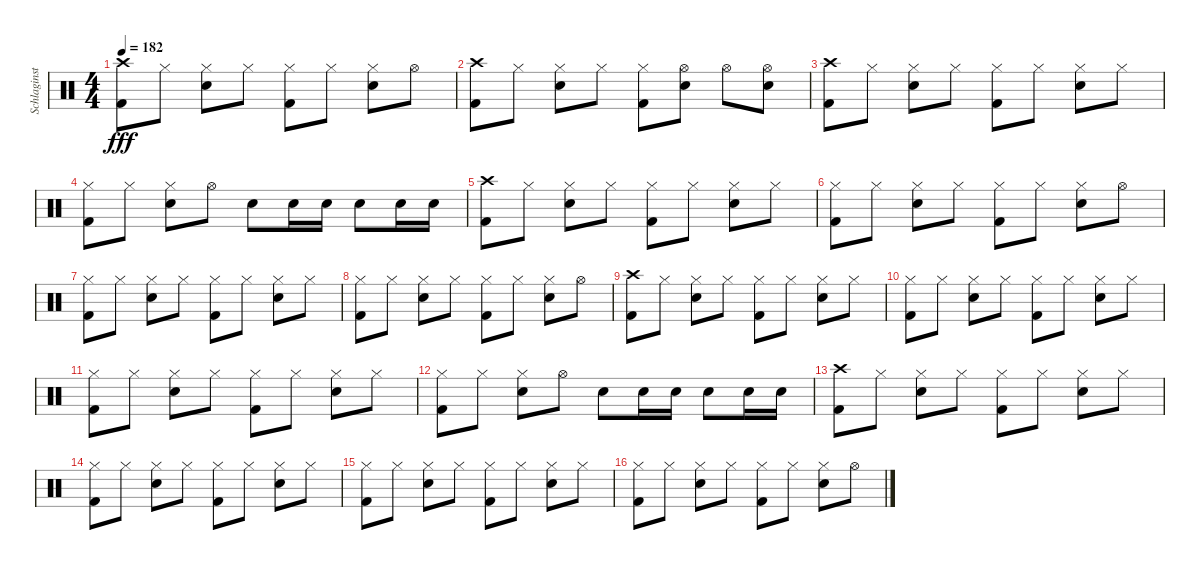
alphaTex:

\track ("Schlaginstrumente - Auswahl" "Schlaginst") {instrument percussion}
\staff {score}
\articulation defaults
\ts (4 4)
\tempo 182
\clef neutral
\ks c
("Kick (hit) 2" "Crash high (hit)").8{dy fff} "Hi-Hat (closed)".8 ("Snare (hit) 2" "Hi-Hat (closed)").8 "Hi-Hat (closed)".8 ("Kick (hit) 2" "Hi-Hat (closed)").8 "Hi-Hat (closed)".8 ("Snare (hit) 2" "Hi-Hat (closed)").8 "Hi-Hat (open)".8 |
("Kick (hit) 2" "Crash high (hit)").8 "Hi-Hat (closed)".8 ("Snare (hit) 2" "Hi-Hat (closed)").8 "Hi-Hat (closed)".8 ("Kick (hit) 2" "Hi-Hat (closed)").8 ("Snare (hit) 2" "Hi-Hat (open)").8 "Hi-Hat (open)".8 ("Snare (hit) 2" "Hi-Hat (open)").8 |
("Kick (hit) 2" "Crash high (hit)").8 "Hi-Hat (closed)".8 ("Snare (hit) 2" "Hi-Hat (closed)").8 "Hi-Hat (closed)".8 ("Kick (hit) 2" "Hi-Hat (closed)").8 "Hi-Hat (closed)".8 ("Snare (hit) 2" "Hi-Hat (closed)").8 "Hi-Hat (closed)".8 |
("Kick (hit) 2" "Hi-Hat (closed)").8 "Hi-Hat (closed)".8 ("Snare (hit) 2" "Hi-Hat (closed)").8 "Hi-Hat (open)".8 "Snare (hit) 2".8 "Snare (hit) 2".16 "Snare (hit) 2".16 "Snare (hit) 2".8 "Snare (hit) 2".16 "Snare (hit) 2".16 |
("Kick (hit) 2" "Crash high (hit)").8 "Hi-Hat (closed)".8 ("Snare (hit) 2" "Hi-Hat (closed)").8 "Hi-Hat (closed)".8 ("Kick (hit) 2" "Hi-Hat (closed)").8 "Hi-Hat (closed)".8 ("Snare (hit) 2" "Hi-Hat (closed)").8 "Hi-Hat (closed)".8 |
("Kick (hit) 2" "Hi-Hat (closed)").8 "Hi-Hat (closed)".8 ("Snare (hit) 2" "Hi-Hat (closed)").8 "Hi-Hat (closed)".8 ("Kick (hit) 2" "Hi-Hat (closed)").8 "Hi-Hat (closed)".8 ("Snare (hit) 2" "Hi-Hat (closed)").8 "Hi-Hat (open)".8 |
("Kick (hit) 2" "Hi-Hat (closed)").8 "Hi-Hat (closed)".8 ("Snare (hit) 2" "Hi-Hat (closed)").8 "Hi-Hat (closed)".8 ("Kick (hit) 2" "Hi-Hat (closed)").8 "Hi-Hat (closed)".8 ("Snare (hit) 2" "Hi-Hat (closed)").8 "Hi-Hat (closed)".8 |
("Kick (hit) 2" "Hi-Hat (closed)").8 "Hi-Hat (closed)".8 ("Snare (hit) 2" "Hi-Hat (closed)").8 "Hi-Hat (closed)".8 ("Kick (hit) 2" "Hi-Hat (closed)").8 "Hi-Hat (closed)".8 ("Snare (hit) 2" "Hi-Hat (closed)").8 "Hi-Hat (open)".8 |
("Kick (hit) 2" "Crash high (hit)").8 "Hi-Hat (closed)".8 ("Snare (hit) 2" "Hi-Hat (closed)").8 "Hi-Hat (closed)".8 ("Kick (hit) 2" "Hi-Hat (closed)").8 "Hi-Hat (closed)".8 ("Snare (hit) 2" "Hi-Hat (closed)").8 "Hi-Hat (closed)".8 |
("Kick (hit) 2" "Hi-Hat (closed)").8 "Hi-Hat (closed)".8 ("Snare (hit) 2" "Hi-Hat (closed)").8 "Hi-Hat (closed)".8 ("Kick (hit) 2" "Hi-Hat (closed)").8 "Hi-Hat (closed)".8 ("Snare (hit) 2" "Hi-Hat (closed)").8 "Hi-Hat (closed)".8 |
("Kick (hit) 2" "Hi-Hat (closed)").8 "Hi-Hat (closed)".8 ("Snare (hit) 2" "Hi-Hat (closed)").8 "Hi-Hat (closed)".8 ("Kick (hit) 2" "Hi-Hat (closed)").8 "Hi-Hat (closed)".8 ("Snare (hit) 2" "Hi-Hat (closed)").8 "Hi-Hat (closed)".8 |
("Kick (hit) 2" "Hi-Hat (closed)").8 "Hi-Hat (closed)".8 ("Snare (hit) 2" "Hi-Hat (closed)").8 "Hi-Hat (open)".8 "Snare (hit) 2".8 "Snare (hit) 2".16 "Snare (hit) 2".16 "Snare (hit) 2".8 "Snare (hit) 2".16 "Snare (hit) 2".16 |
("Kick (hit) 2" "Crash high (hit)").8 "Hi-Hat (closed)".8 ("Snare (hit) 2" "Hi-Hat (closed)").8 "Hi-Hat (closed)".8 ("Kick (hit) 2" "Hi-Hat (closed)").8 "Hi-Hat (closed)".8 ("Snare (hit) 2" "Hi-Hat (closed)").8 "Hi-Hat (closed)".8 |
("Kick (hit) 2" "Hi-Hat (closed)").8 "Hi-Hat (closed)".8 ("Snare (hit) 2" "Hi-Hat (closed)").8 "Hi-Hat (closed)".8 ("Kick (hit) 2" "Hi-Hat (closed)").8 "Hi-Hat (closed)".8 ("Snare (hit) 2" "Hi-Hat (closed)").8 "Hi-Hat (closed)".8 |
("Kick (hit) 2" "Hi-Hat (closed)").8 "Hi-Hat (closed)".8 ("Snare (hit) 2" "Hi-Hat (closed)").8 "Hi-Hat (closed)".8 ("Kick (hit) 2" "Hi-Hat (closed)").8 "Hi-Hat (closed)".8 ("Snare (hit) 2" "Hi-Hat (closed)").8 "Hi-Hat (closed)".8 |
("Kick (hit) 2" "Hi-Hat (closed)").8 "Hi-Hat (closed)".8 ("Snare (hit) 2" "Hi-Hat (closed)").8 "Hi-Hat (closed)".8 ("Kick (hit) 2" "Hi-Hat (closed)").8 "Hi-Hat (closed)".8 ("Snare (hit) 2" "Hi-Hat (closed)").8 "Hi-Hat (open)".8
